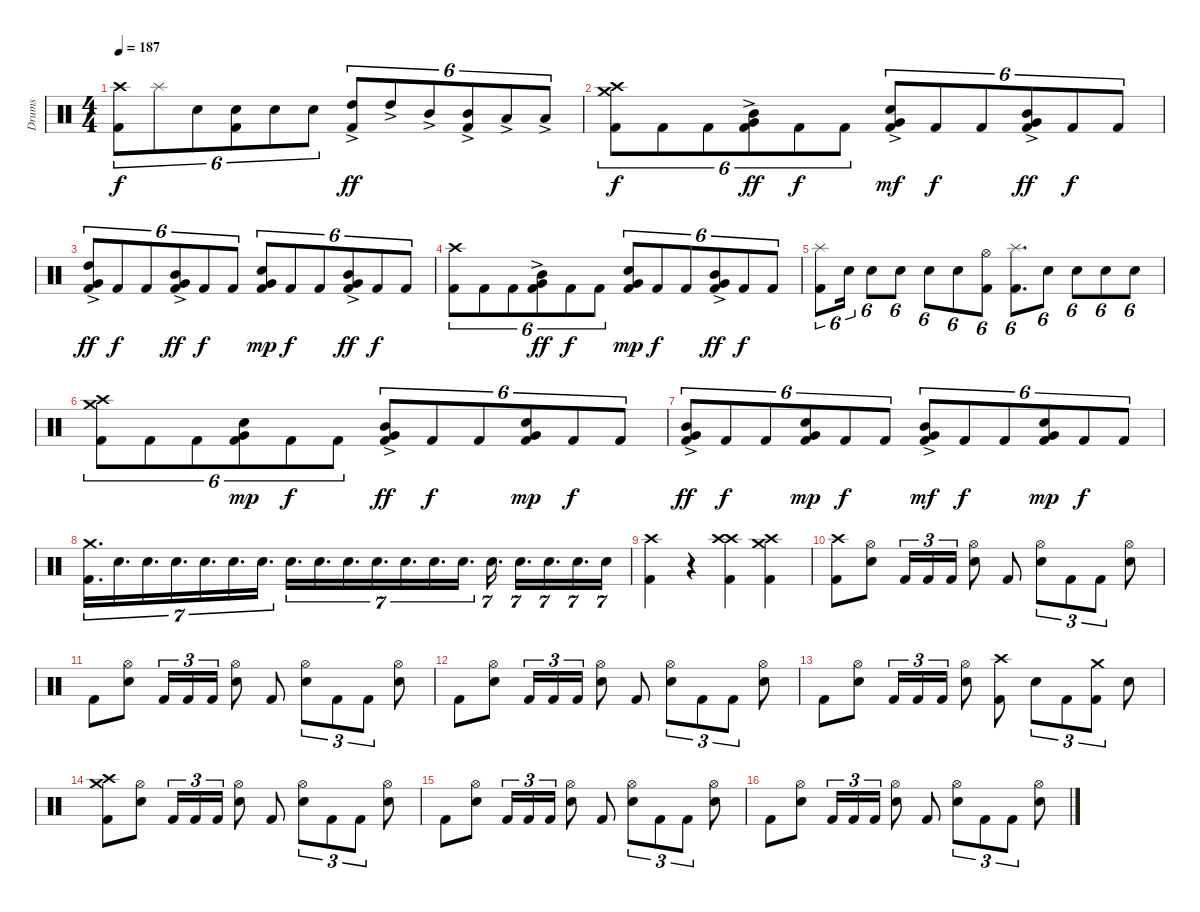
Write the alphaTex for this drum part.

\track ("Drums" "Drums") {instrument percussion}
\staff {score}
\articulation defaults
\ts (4 4)
\tempo 187
\clef neutral
\ks c
("Crash high (hit)" "Kick (hit) 2").8{tu (6 4) dy f} "Splash (hit)".8{tu (6 4)} "Snare (hit) 2".8{tu (6 4)} ("Snare (hit) 2" "Kick (hit) 2").8{tu (6 4)} "Snare (hit) 2".8{tu (6 4)} "Snare (hit) 2".8{tu (6 4)} ("High Tom (hit)"{ac} "Kick (hit) 2").8{tu (6 4) dy ff} "High Tom (hit)"{ac}.8{tu (6 4)} "Mid Tom (hit)"{ac}.8{tu (6 4)} ("Mid Tom (hit)"{ac} "Kick (hit) 2").8{tu (6 4)} "Low Tom (hit)"{ac}.8{tu (6 4)} "Low Tom (hit)"{ac}.8{tu (6 4)} |
("Crash high (hit)" "Crash medium (hit)" "Kick (hit) 2").8{tu (6 4) dy f} "Kick (hit) 2".8{tu (6 4)} "Kick (hit) 2".8{tu (6 4)} ("Kick (hit) 2" "Very Low Tom (hit)"{ac} "Mid Tom (hit)"{ac}).8{tu (6 4) dy ff} "Kick (hit) 2".8{tu (6 4) dy f} "Kick (hit) 2".8{tu (6 4)} ("Snare (hit) 2"{ac} "Kick (hit) 2" "Very Low Tom (hit)").8{tu (6 4) dy mf} "Kick (hit) 2".8{tu (6 4) dy f} "Kick (hit) 2".8{tu (6 4)} ("Kick (hit) 2" "Very Low Tom (hit)"{ac} "Mid Tom (hit)"{ac}).8{tu (6 4) dy ff} "Kick (hit) 2".8{tu (6 4) dy f} "Kick (hit) 2".8{tu (6 4)} |
("Very Low Tom (hit)"{ac} "High Tom (hit)"{ac} "Kick (hit) 2").8{tu (6 4) dy ff} "Kick (hit) 2".8{tu (6 4) dy f} "Kick (hit) 2".8{tu (6 4)} ("Kick (hit) 2" "Very Low Tom (hit)"{ac} "Mid Tom (hit)"{ac}).8{tu (6 4) dy ff} "Kick (hit) 2".8{tu (6 4) dy f} "Kick (hit) 2".8{tu (6 4)} ("Snare (hit) 2" "Kick (hit) 2" "Very Low Tom (hit)").8{tu (6 4) dy mp} "Kick (hit) 2".8{tu (6 4) dy f} "Kick (hit) 2".8{tu (6 4)} ("Kick (hit) 2" "Very Low Tom (hit)"{ac} "Mid Tom (hit)"{ac}).8{tu (6 4) dy ff} "Kick (hit) 2".8{tu (6 4) dy f} "Kick (hit) 2".8{tu (6 4)} |
("Crash high (hit)" "Kick (hit) 2").8{tu (6 4)} "Kick (hit) 2".8{tu (6 4)} "Kick (hit) 2".8{tu (6 4)} ("Kick (hit) 2" "Very Low Tom (hit)"{ac} "Mid Tom (hit)"{ac}).8{tu (6 4) dy ff} "Kick (hit) 2".8{tu (6 4) dy f} "Kick (hit) 2".8{tu (6 4)} ("Snare (hit) 2" "Kick (hit) 2" "Very Low Tom (hit)").8{tu (6 4) dy mp} "Kick (hit) 2".8{tu (6 4) dy f} "Kick (hit) 2".8{tu (6 4)} ("Kick (hit) 2" "Very Low Tom (hit)"{ac} "Mid Tom (hit)"{ac}).8{tu (6 4) dy ff} "Kick (hit) 2".8{tu (6 4) dy f} "Kick (hit) 2".8{tu (6 4)} |
("Splash (hit)" "Kick (hit) 2").8{tu (6 4)} "Snare (hit) 2".16{tu (6 4)} "Snare (hit) 2".8{tu (6 4)} "Snare (hit) 2".8{tu (6 4)} "Snare (hit) 2".8{tu (6 4)} "Snare (hit) 2".8{tu (6 4)} ("Hi-Hat (open)" "Kick (hit) 2").8{tu (6 4)} ("Splash (hit)" "Kick (hit) 2").8{d tu (6 4)} "Snare (hit) 2".8{tu (6 4)} "Snare (hit) 2".8{tu (6 4)} "Snare (hit) 2".8{tu (6 4)} "Snare (hit) 2".8{tu (6 4)} |
("Crash high (hit)" "Crash medium (hit)" "Kick (hit) 2").8{tu (6 4)} "Kick (hit) 2".8{tu (6 4)} "Kick (hit) 2".8{tu (6 4)} ("Kick (hit) 2" "Very Low Tom (hit)" "Snare (hit) 2").8{tu (6 4) dy mp} "Kick (hit) 2".8{tu (6 4) dy f} "Kick (hit) 2".8{tu (6 4)} ("Mid Tom (hit)"{ac} "Kick (hit) 2" "Very Low Tom (hit)"{ac}).8{tu (6 4) dy ff} "Kick (hit) 2".8{tu (6 4) dy f} "Kick (hit) 2".8{tu (6 4)} ("Kick (hit) 2" "Very Low Tom (hit)" "Snare (hit) 2").8{tu (6 4) dy mp} "Kick (hit) 2".8{tu (6 4) dy f} "Kick (hit) 2".8{tu (6 4)} |
("Mid Tom (hit)"{ac} "Kick (hit) 2" "Very Low Tom (hit)"{ac}).8{tu (6 4) dy ff} "Kick (hit) 2".8{tu (6 4) dy f} "Kick (hit) 2".8{tu (6 4)} ("Kick (hit) 2" "Very Low Tom (hit)" "Snare (hit) 2").8{tu (6 4) dy mp} "Kick (hit) 2".8{tu (6 4) dy f} "Kick (hit) 2".8{tu (6 4)} ("Mid Tom (hit)"{ac} "Kick (hit) 2" "Very Low Tom (hit)"{ac}).8{tu (6 4) dy mf} "Kick (hit) 2".8{tu (6 4) dy f} "Kick (hit) 2".8{tu (6 4)} ("Kick (hit) 2" "Very Low Tom (hit)" "Snare (hit) 2").8{tu (6 4) dy mp} "Kick (hit) 2".8{tu (6 4) dy f} "Kick (hit) 2".8{tu (6 4)} |
("Crash medium (hit)" "Kick (hit) 2").16{d tu (7 4)} "Snare (hit) 2".16{d tu (7 4)} "Snare (hit) 2".16{d tu (7 4)} "Snare (hit) 2".16{d tu (7 4)} "Snare (hit) 2".16{d tu (7 4)} "Snare (hit) 2".16{d tu (7 4)} "Snare (hit) 2".16{d tu (7 4)} "Snare (hit) 2".16{d tu (7 4)} "Snare (hit) 2".16{d tu (7 4)} "Snare (hit) 2".16{d tu (7 4)} "Snare (hit) 2".16{d tu (7 4)} "Snare (hit) 2".16{d tu (7 4)} "Snare (hit) 2".16{d tu (7 4)} "Snare (hit) 2".16{d tu (7 4)} "Snare (hit) 2".16{d tu (7 4)} "Snare (hit) 2".16{d tu (7 4)} "Snare (hit) 2".16{d tu (7 4)} "Snare (hit) 2".16{d tu (7 4)} "Snare (hit) 2".16{tu (7 4)} |
("Kick (hit) 2" "Crash high (hit)").4 r.4 ("Crash high (hit)" "Crash high (hit)" "Kick (hit) 2").4 ("Crash high (hit)" "Crash medium (hit)" "Kick (hit) 2").4 |
("Crash high (hit)" "Kick (hit) 2").8 ("Snare (hit) 2" "Hi-Hat (open)").8 "Kick (hit) 2".16{tu (3 2)} "Kick (hit) 2".16{tu (3 2)} "Kick (hit) 2".16{tu (3 2)} ("Hi-Hat (open)" "Snare (hit) 2").8 "Kick (hit) 2".8 ("Hi-Hat (open)" "Snare (hit) 2").8{tu (3 2)} "Kick (hit) 2".8{tu (3 2)} "Kick (hit) 2".8{tu (3 2)} ("Snare (hit) 2" "Hi-Hat (open)").8 |
"Kick (hit) 2".8 ("Snare (hit) 2" "Hi-Hat (open)").8 "Kick (hit) 2".16{tu (3 2)} "Kick (hit) 2".16{tu (3 2)} "Kick (hit) 2".16{tu (3 2)} ("Hi-Hat (open)" "Snare (hit) 2").8 "Kick (hit) 2".8 ("Hi-Hat (open)" "Snare (hit) 2").8{tu (3 2)} "Kick (hit) 2".8{tu (3 2)} "Kick (hit) 2".8{tu (3 2)} ("Hi-Hat (open)" "Snare (hit) 2").8 |
"Kick (hit) 2".8 ("Snare (hit) 2" "Hi-Hat (open)").8 "Kick (hit) 2".16{tu (3 2)} "Kick (hit) 2".16{tu (3 2)} "Kick (hit) 2".16{tu (3 2)} ("Hi-Hat (open)" "Snare (hit) 2").8 "Kick (hit) 2".8 ("Hi-Hat (open)" "Snare (hit) 2").8{tu (3 2)} "Kick (hit) 2".8{tu (3 2)} "Kick (hit) 2".8{tu (3 2)} ("Snare (hit) 2" "Hi-Hat (open)").8 |
"Kick (hit) 2".8 ("Snare (hit) 2" "Hi-Hat (open)").8 "Kick (hit) 2".16{tu (3 2)} "Kick (hit) 2".16{tu (3 2)} "Kick (hit) 2".16{tu (3 2)} ("Hi-Hat (open)" "Snare (hit) 2").8 ("Kick (hit) 2" "Crash high (hit)").8 "Snare (hit) 2".8{tu (3 2)} "Kick (hit) 2".8{tu (3 2)} ("Kick (hit) 2" "Crash medium (hit)").8{tu (3 2)} "Snare (hit) 2".8 |
("Crash high (hit)" "Kick (hit) 2" "Crash medium (hit)").8 ("Snare (hit) 2" "Hi-Hat (open)").8 "Kick (hit) 2".16{tu (3 2)} "Kick (hit) 2".16{tu (3 2)} "Kick (hit) 2".16{tu (3 2)} ("Hi-Hat (open)" "Snare (hit) 2").8 "Kick (hit) 2".8 ("Hi-Hat (open)" "Snare (hit) 2").8{tu (3 2)} "Kick (hit) 2".8{tu (3 2)} "Kick (hit) 2".8{tu (3 2)} ("Snare (hit) 2" "Hi-Hat (open)").8 |
"Kick (hit) 2".8 ("Snare (hit) 2" "Hi-Hat (open)").8 "Kick (hit) 2".16{tu (3 2)} "Kick (hit) 2".16{tu (3 2)} "Kick (hit) 2".16{tu (3 2)} ("Hi-Hat (open)" "Snare (hit) 2").8 "Kick (hit) 2".8 ("Hi-Hat (open)" "Snare (hit) 2").8{tu (3 2)} "Kick (hit) 2".8{tu (3 2)} "Kick (hit) 2".8{tu (3 2)} ("Hi-Hat (open)" "Snare (hit) 2").8 |
"Kick (hit) 2".8 ("Snare (hit) 2" "Hi-Hat (open)").8 "Kick (hit) 2".16{tu (3 2)} "Kick (hit) 2".16{tu (3 2)} "Kick (hit) 2".16{tu (3 2)} ("Hi-Hat (open)" "Snare (hit) 2").8 "Kick (hit) 2".8 ("Hi-Hat (open)" "Snare (hit) 2").8{tu (3 2)} "Kick (hit) 2".8{tu (3 2)} "Kick (hit) 2".8{tu (3 2)} ("Snare (hit) 2" "Hi-Hat (open)").8
